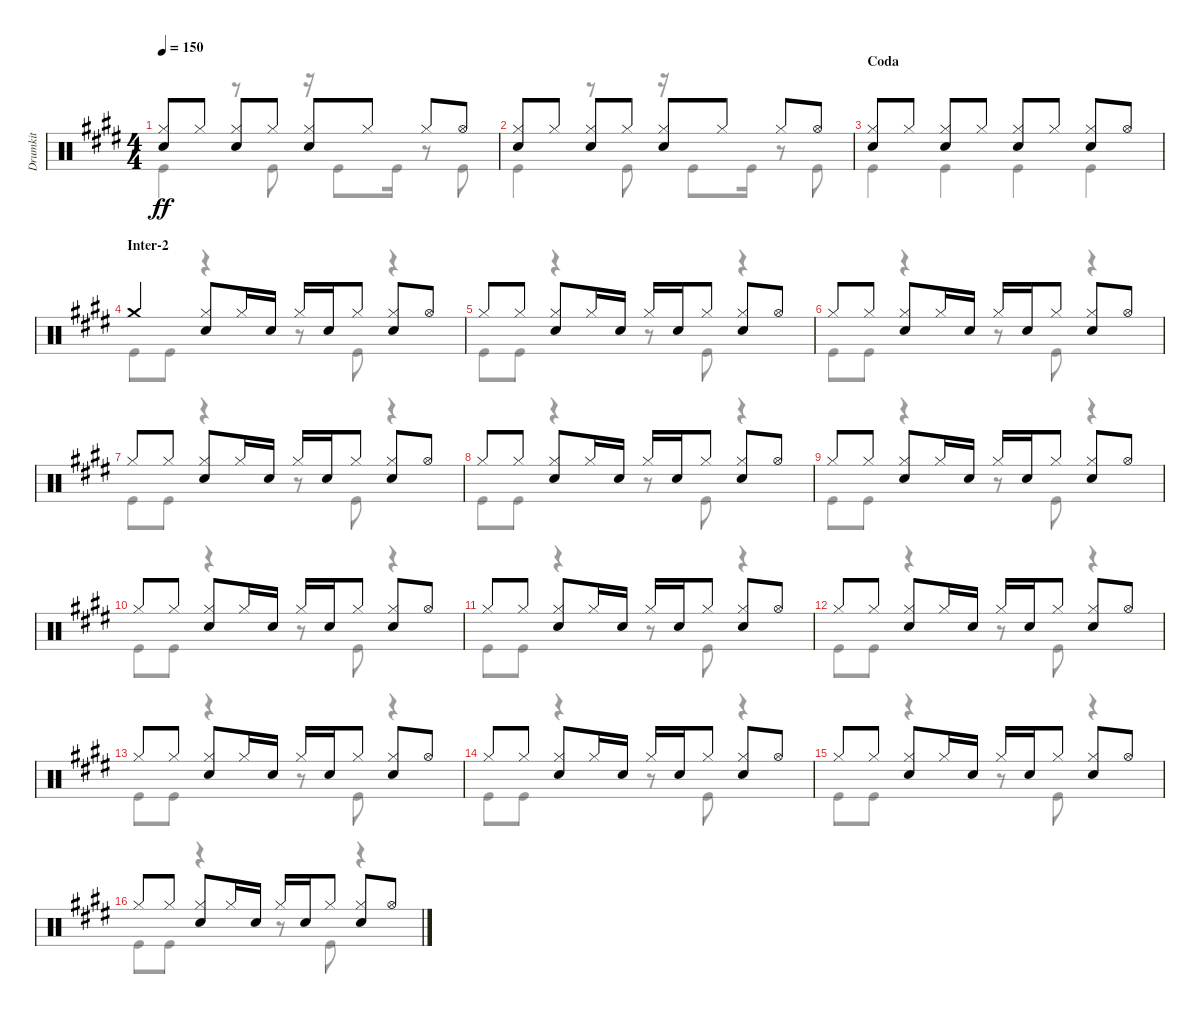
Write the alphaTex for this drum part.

\track ("Drumkit" "Drumkit") {instrument percussion}
\staff {score}
\articulation defaults
\voice
\ts (4 4)
\tempo 150
\clef neutral
\ks e
("Snare (hit) 2" "Hi-Hat (closed)").8{dy ff} "Hi-Hat (closed)".8 ("Hi-Hat (closed)" "Snare (hit) 2").8 "Hi-Hat (closed)".8 ("Hi-Hat (closed)" "Snare (hit) 2").8 "Hi-Hat (closed)".8 "Hi-Hat (closed)".8 "Hi-Hat (open)".8 |
("Snare (hit) 2" "Hi-Hat (closed)").8 "Hi-Hat (closed)".8 ("Hi-Hat (closed)" "Snare (hit) 2").8 "Hi-Hat (closed)".8 ("Hi-Hat (closed)" "Snare (hit) 2").8 "Hi-Hat (closed)".8 "Hi-Hat (closed)".8 "Hi-Hat (open)".8 |
\section ("" "Coda")
("Snare (hit) 2" "Hi-Hat (closed)").8 "Hi-Hat (closed)".8 ("Hi-Hat (closed)" "Snare (hit) 2").8 "Hi-Hat (closed)".8 ("Hi-Hat (closed)" "Snare (hit) 2").8 "Hi-Hat (closed)".8 ("Hi-Hat (closed)" "Snare (hit) 2").8 "Hi-Hat (open)".8 |
\section ("" "Inter-2")
"Crash medium (hit)".4 ("Hi-Hat (closed)" "Snare (hit) 2").8 "Hi-Hat (closed)".16 "Snare (hit) 2".16 "Hi-Hat (closed)".16 "Snare (hit) 2".16 "Hi-Hat (closed)".8 ("Hi-Hat (closed)" "Snare (hit) 2").8 "Hi-Hat (open)".8 |
"Hi-Hat (closed)".8 "Hi-Hat (closed)".8 ("Hi-Hat (closed)" "Snare (hit) 2").8 "Hi-Hat (closed)".16 "Snare (hit) 2".16 "Hi-Hat (closed)".16 "Snare (hit) 2".16 "Hi-Hat (closed)".8 ("Hi-Hat (closed)" "Snare (hit) 2").8 "Hi-Hat (open)".8 |
"Hi-Hat (closed)".8 "Hi-Hat (closed)".8 ("Hi-Hat (closed)" "Snare (hit) 2").8 "Hi-Hat (closed)".16 "Snare (hit) 2".16 "Hi-Hat (closed)".16 "Snare (hit) 2".16 "Hi-Hat (closed)".8 ("Hi-Hat (closed)" "Snare (hit) 2").8 "Hi-Hat (open)".8 |
"Hi-Hat (closed)".8 "Hi-Hat (closed)".8 ("Hi-Hat (closed)" "Snare (hit) 2").8 "Hi-Hat (closed)".16 "Snare (hit) 2".16 "Hi-Hat (closed)".16 "Snare (hit) 2".16 "Hi-Hat (closed)".8 ("Hi-Hat (closed)" "Snare (hit) 2").8 "Hi-Hat (open)".8 |
"Hi-Hat (closed)".8 "Hi-Hat (closed)".8 ("Hi-Hat (closed)" "Snare (hit) 2").8 "Hi-Hat (closed)".16 "Snare (hit) 2".16 "Hi-Hat (closed)".16 "Snare (hit) 2".16 "Hi-Hat (closed)".8 ("Hi-Hat (closed)" "Snare (hit) 2").8 "Hi-Hat (open)".8 |
"Hi-Hat (closed)".8 "Hi-Hat (closed)".8 ("Hi-Hat (closed)" "Snare (hit) 2").8 "Hi-Hat (closed)".16 "Snare (hit) 2".16 "Hi-Hat (closed)".16 "Snare (hit) 2".16 "Hi-Hat (closed)".8 ("Hi-Hat (closed)" "Snare (hit) 2").8 "Hi-Hat (open)".8 |
"Hi-Hat (closed)".8 "Hi-Hat (closed)".8 ("Hi-Hat (closed)" "Snare (hit) 2").8 "Hi-Hat (closed)".16 "Snare (hit) 2".16 "Hi-Hat (closed)".16 "Snare (hit) 2".16 "Hi-Hat (closed)".8 ("Hi-Hat (closed)" "Snare (hit) 2").8 "Hi-Hat (open)".8 |
"Hi-Hat (closed)".8 "Hi-Hat (closed)".8 ("Hi-Hat (closed)" "Snare (hit) 2").8 "Hi-Hat (closed)".16 "Snare (hit) 2".16 "Hi-Hat (closed)".16 "Snare (hit) 2".16 "Hi-Hat (closed)".8 ("Hi-Hat (closed)" "Snare (hit) 2").8 "Hi-Hat (open)".8 |
"Hi-Hat (closed)".8 "Hi-Hat (closed)".8 ("Hi-Hat (closed)" "Snare (hit) 2").8 "Hi-Hat (closed)".16 "Snare (hit) 2".16 "Hi-Hat (closed)".16 "Snare (hit) 2".16 "Hi-Hat (closed)".8 ("Hi-Hat (closed)" "Snare (hit) 2").8 "Hi-Hat (open)".8 |
"Hi-Hat (closed)".8 "Hi-Hat (closed)".8 ("Hi-Hat (closed)" "Snare (hit) 2").8 "Hi-Hat (closed)".16 "Snare (hit) 2".16 "Hi-Hat (closed)".16 "Snare (hit) 2".16 "Hi-Hat (closed)".8 ("Hi-Hat (closed)" "Snare (hit) 2").8 "Hi-Hat (open)".8 |
"Hi-Hat (closed)".8 "Hi-Hat (closed)".8 ("Hi-Hat (closed)" "Snare (hit) 2").8 "Hi-Hat (closed)".16 "Snare (hit) 2".16 "Hi-Hat (closed)".16 "Snare (hit) 2".16 "Hi-Hat (closed)".8 ("Hi-Hat (closed)" "Snare (hit) 2").8 "Hi-Hat (open)".8 |
"Hi-Hat (closed)".8 "Hi-Hat (closed)".8 ("Hi-Hat (closed)" "Snare (hit) 2").8 "Hi-Hat (closed)".16 "Snare (hit) 2".16 "Hi-Hat (closed)".16 "Snare (hit) 2".16 "Hi-Hat (closed)".8 ("Hi-Hat (closed)" "Snare (hit) 2").8 "Hi-Hat (open)".8 |
"Hi-Hat (closed)".8 "Hi-Hat (closed)".8 ("Hi-Hat (closed)" "Snare (hit) 2").8 "Hi-Hat (closed)".16 "Snare (hit) 2".16 "Hi-Hat (closed)".16 "Snare (hit) 2".16 "Hi-Hat (closed)".8 ("Hi-Hat (closed)" "Snare (hit) 2").8 "Hi-Hat (open)".8
\voice
\clef neutral
\ottava regular
\simile none
\ks e "Kick (hit)".4{dy ff}
r.8 "Kick (hit)".8 r.16 "Kick (hit)".8 "Kick (hit)".16 r.8 "Kick (hit)".8 |
"Kick (hit)".4 r.8 "Kick (hit)".8 r.16 "Kick (hit)".8 "Kick (hit)".16 r.8 "Kick (hit)".8 |
"Kick (hit)".4 "Kick (hit)".4 "Kick (hit)".4 "Kick (hit)".4 |
"Kick (hit)".8 "Kick (hit)".8 r.4 r.8 "Kick (hit)".8 r.4 |
"Kick (hit)".8 "Kick (hit)".8 r.4 r.8 "Kick (hit)".8 r.4 |
"Kick (hit)".8 "Kick (hit)".8 r.4 r.8 "Kick (hit)".8 r.4 |
"Kick (hit)".8 "Kick (hit)".8 r.4 r.8 "Kick (hit)".8 r.4 |
"Kick (hit)".8 "Kick (hit)".8 r.4 r.8 "Kick (hit)".8 r.4 |
"Kick (hit)".8 "Kick (hit)".8 r.4 r.8 "Kick (hit)".8 r.4 |
"Kick (hit)".8 "Kick (hit)".8 r.4 r.8 "Kick (hit)".8 r.4 |
"Kick (hit)".8 "Kick (hit)".8 r.4 r.8 "Kick (hit)".8 r.4 |
"Kick (hit)".8 "Kick (hit)".8 r.4 r.8 "Kick (hit)".8 r.4 |
"Kick (hit)".8 "Kick (hit)".8 r.4 r.8 "Kick (hit)".8 r.4 |
"Kick (hit)".8 "Kick (hit)".8 r.4 r.8 "Kick (hit)".8 r.4 |
"Kick (hit)".8 "Kick (hit)".8 r.4 r.8 "Kick (hit)".8 r.4 |
"Kick (hit)".8 "Kick (hit)".8 r.4 r.8 "Kick (hit)".8 r.4
